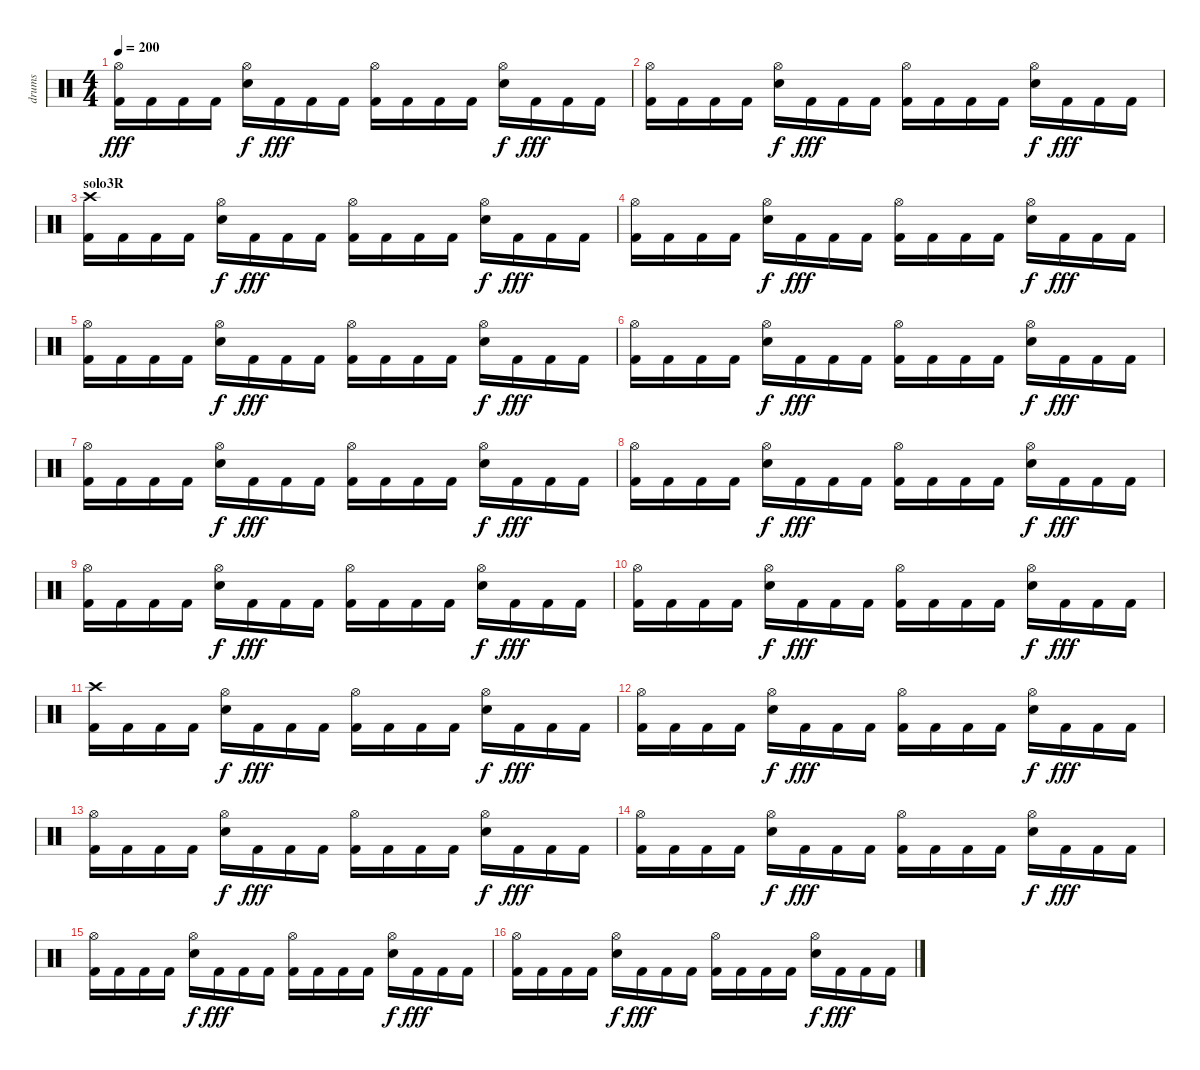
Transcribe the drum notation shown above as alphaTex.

\track ("drums" "drums") {instrument percussion}
\staff {score}
\articulation defaults
\ts (4 4)
\tempo 200
\clef neutral
\ks c
("Hi-Hat (open)" "Kick (hit) 2").16{dy fff} "Kick (hit) 2".16 "Kick (hit) 2".16 "Kick (hit) 2".16 ("Hi-Hat (open)" "Snare (hit) 2").16{dy f} "Kick (hit) 2".16{dy fff} "Kick (hit) 2".16 "Kick (hit) 2".16 ("Hi-Hat (open)" "Kick (hit) 2").16 "Kick (hit) 2".16 "Kick (hit) 2".16 "Kick (hit) 2".16 ("Hi-Hat (open)" "Snare (hit) 2").16{dy f} "Kick (hit) 2".16{dy fff} "Kick (hit) 2".16 "Kick (hit) 2".16 |
("Hi-Hat (open)" "Kick (hit) 2").16 "Kick (hit) 2".16 "Kick (hit) 2".16 "Kick (hit) 2".16 ("Hi-Hat (open)" "Snare (hit) 2").16{dy f} "Kick (hit) 2".16{dy fff} "Kick (hit) 2".16 "Kick (hit) 2".16 ("Hi-Hat (open)" "Kick (hit) 2").16 "Kick (hit) 2".16 "Kick (hit) 2".16 "Kick (hit) 2".16 ("Hi-Hat (open)" "Snare (hit) 2").16{dy f} "Kick (hit) 2".16{dy fff} "Kick (hit) 2".16 "Kick (hit) 2".16 |
\section ("" "solo3R")
("Crash high (hit)" "Kick (hit) 2").16 "Kick (hit) 2".16 "Kick (hit) 2".16 "Kick (hit) 2".16 ("Hi-Hat (open)" "Snare (hit) 2").16{dy f} "Kick (hit) 2".16{dy fff} "Kick (hit) 2".16 "Kick (hit) 2".16 ("Hi-Hat (open)" "Kick (hit) 2").16 "Kick (hit) 2".16 "Kick (hit) 2".16 "Kick (hit) 2".16 ("Hi-Hat (open)" "Snare (hit) 2").16{dy f} "Kick (hit) 2".16{dy fff} "Kick (hit) 2".16 "Kick (hit) 2".16 |
("Hi-Hat (open)" "Kick (hit) 2").16 "Kick (hit) 2".16 "Kick (hit) 2".16 "Kick (hit) 2".16 ("Hi-Hat (open)" "Snare (hit) 2").16{dy f} "Kick (hit) 2".16{dy fff} "Kick (hit) 2".16 "Kick (hit) 2".16 ("Hi-Hat (open)" "Kick (hit) 2").16 "Kick (hit) 2".16 "Kick (hit) 2".16 "Kick (hit) 2".16 ("Hi-Hat (open)" "Snare (hit) 2").16{dy f} "Kick (hit) 2".16{dy fff} "Kick (hit) 2".16 "Kick (hit) 2".16 |
("Hi-Hat (open)" "Kick (hit) 2").16 "Kick (hit) 2".16 "Kick (hit) 2".16 "Kick (hit) 2".16 ("Hi-Hat (open)" "Snare (hit) 2").16{dy f} "Kick (hit) 2".16{dy fff} "Kick (hit) 2".16 "Kick (hit) 2".16 ("Hi-Hat (open)" "Kick (hit) 2").16 "Kick (hit) 2".16 "Kick (hit) 2".16 "Kick (hit) 2".16 ("Hi-Hat (open)" "Snare (hit) 2").16{dy f} "Kick (hit) 2".16{dy fff} "Kick (hit) 2".16 "Kick (hit) 2".16 |
("Hi-Hat (open)" "Kick (hit) 2").16 "Kick (hit) 2".16 "Kick (hit) 2".16 "Kick (hit) 2".16 ("Hi-Hat (open)" "Snare (hit) 2").16{dy f} "Kick (hit) 2".16{dy fff} "Kick (hit) 2".16 "Kick (hit) 2".16 ("Hi-Hat (open)" "Kick (hit) 2").16 "Kick (hit) 2".16 "Kick (hit) 2".16 "Kick (hit) 2".16 ("Hi-Hat (open)" "Snare (hit) 2").16{dy f} "Kick (hit) 2".16{dy fff} "Kick (hit) 2".16 "Kick (hit) 2".16 |
("Hi-Hat (open)" "Kick (hit) 2").16 "Kick (hit) 2".16 "Kick (hit) 2".16 "Kick (hit) 2".16 ("Hi-Hat (open)" "Snare (hit) 2").16{dy f} "Kick (hit) 2".16{dy fff} "Kick (hit) 2".16 "Kick (hit) 2".16 ("Hi-Hat (open)" "Kick (hit) 2").16 "Kick (hit) 2".16 "Kick (hit) 2".16 "Kick (hit) 2".16 ("Hi-Hat (open)" "Snare (hit) 2").16{dy f} "Kick (hit) 2".16{dy fff} "Kick (hit) 2".16 "Kick (hit) 2".16 |
("Hi-Hat (open)" "Kick (hit) 2").16 "Kick (hit) 2".16 "Kick (hit) 2".16 "Kick (hit) 2".16 ("Hi-Hat (open)" "Snare (hit) 2").16{dy f} "Kick (hit) 2".16{dy fff} "Kick (hit) 2".16 "Kick (hit) 2".16 ("Hi-Hat (open)" "Kick (hit) 2").16 "Kick (hit) 2".16 "Kick (hit) 2".16 "Kick (hit) 2".16 ("Hi-Hat (open)" "Snare (hit) 2").16{dy f} "Kick (hit) 2".16{dy fff} "Kick (hit) 2".16 "Kick (hit) 2".16 |
("Hi-Hat (open)" "Kick (hit) 2").16 "Kick (hit) 2".16 "Kick (hit) 2".16 "Kick (hit) 2".16 ("Hi-Hat (open)" "Snare (hit) 2").16{dy f} "Kick (hit) 2".16{dy fff} "Kick (hit) 2".16 "Kick (hit) 2".16 ("Hi-Hat (open)" "Kick (hit) 2").16 "Kick (hit) 2".16 "Kick (hit) 2".16 "Kick (hit) 2".16 ("Hi-Hat (open)" "Snare (hit) 2").16{dy f} "Kick (hit) 2".16{dy fff} "Kick (hit) 2".16 "Kick (hit) 2".16 |
("Hi-Hat (open)" "Kick (hit) 2").16 "Kick (hit) 2".16 "Kick (hit) 2".16 "Kick (hit) 2".16 ("Hi-Hat (open)" "Snare (hit) 2").16{dy f} "Kick (hit) 2".16{dy fff} "Kick (hit) 2".16 "Kick (hit) 2".16 ("Hi-Hat (open)" "Kick (hit) 2").16 "Kick (hit) 2".16 "Kick (hit) 2".16 "Kick (hit) 2".16 ("Hi-Hat (open)" "Snare (hit) 2").16{dy f} "Kick (hit) 2".16{dy fff} "Kick (hit) 2".16 "Kick (hit) 2".16 |
("Crash high (hit)" "Kick (hit) 2").16 "Kick (hit) 2".16 "Kick (hit) 2".16 "Kick (hit) 2".16 ("Hi-Hat (open)" "Snare (hit) 2").16{dy f} "Kick (hit) 2".16{dy fff} "Kick (hit) 2".16 "Kick (hit) 2".16 ("Hi-Hat (open)" "Kick (hit) 2").16 "Kick (hit) 2".16 "Kick (hit) 2".16 "Kick (hit) 2".16 ("Hi-Hat (open)" "Snare (hit) 2").16{dy f} "Kick (hit) 2".16{dy fff} "Kick (hit) 2".16 "Kick (hit) 2".16 |
("Hi-Hat (open)" "Kick (hit) 2").16 "Kick (hit) 2".16 "Kick (hit) 2".16 "Kick (hit) 2".16 ("Hi-Hat (open)" "Snare (hit) 2").16{dy f} "Kick (hit) 2".16{dy fff} "Kick (hit) 2".16 "Kick (hit) 2".16 ("Hi-Hat (open)" "Kick (hit) 2").16 "Kick (hit) 2".16 "Kick (hit) 2".16 "Kick (hit) 2".16 ("Hi-Hat (open)" "Snare (hit) 2").16{dy f} "Kick (hit) 2".16{dy fff} "Kick (hit) 2".16 "Kick (hit) 2".16 |
("Hi-Hat (open)" "Kick (hit) 2").16 "Kick (hit) 2".16 "Kick (hit) 2".16 "Kick (hit) 2".16 ("Hi-Hat (open)" "Snare (hit) 2").16{dy f} "Kick (hit) 2".16{dy fff} "Kick (hit) 2".16 "Kick (hit) 2".16 ("Hi-Hat (open)" "Kick (hit) 2").16 "Kick (hit) 2".16 "Kick (hit) 2".16 "Kick (hit) 2".16 ("Hi-Hat (open)" "Snare (hit) 2").16{dy f} "Kick (hit) 2".16{dy fff} "Kick (hit) 2".16 "Kick (hit) 2".16 |
("Hi-Hat (open)" "Kick (hit) 2").16 "Kick (hit) 2".16 "Kick (hit) 2".16 "Kick (hit) 2".16 ("Hi-Hat (open)" "Snare (hit) 2").16{dy f} "Kick (hit) 2".16{dy fff} "Kick (hit) 2".16 "Kick (hit) 2".16 ("Hi-Hat (open)" "Kick (hit) 2").16 "Kick (hit) 2".16 "Kick (hit) 2".16 "Kick (hit) 2".16 ("Hi-Hat (open)" "Snare (hit) 2").16{dy f} "Kick (hit) 2".16{dy fff} "Kick (hit) 2".16 "Kick (hit) 2".16 |
("Hi-Hat (open)" "Kick (hit) 2").16 "Kick (hit) 2".16 "Kick (hit) 2".16 "Kick (hit) 2".16 ("Hi-Hat (open)" "Snare (hit) 2").16{dy f} "Kick (hit) 2".16{dy fff} "Kick (hit) 2".16 "Kick (hit) 2".16 ("Hi-Hat (open)" "Kick (hit) 2").16 "Kick (hit) 2".16 "Kick (hit) 2".16 "Kick (hit) 2".16 ("Hi-Hat (open)" "Snare (hit) 2").16{dy f} "Kick (hit) 2".16{dy fff} "Kick (hit) 2".16 "Kick (hit) 2".16 |
("Hi-Hat (open)" "Kick (hit) 2").16 "Kick (hit) 2".16 "Kick (hit) 2".16 "Kick (hit) 2".16 ("Hi-Hat (open)" "Snare (hit) 2").16{dy f} "Kick (hit) 2".16{dy fff} "Kick (hit) 2".16 "Kick (hit) 2".16 ("Hi-Hat (open)" "Kick (hit) 2").16 "Kick (hit) 2".16 "Kick (hit) 2".16 "Kick (hit) 2".16 ("Hi-Hat (open)" "Snare (hit) 2").16{dy f} "Kick (hit) 2".16{dy fff} "Kick (hit) 2".16 "Kick (hit) 2".16
